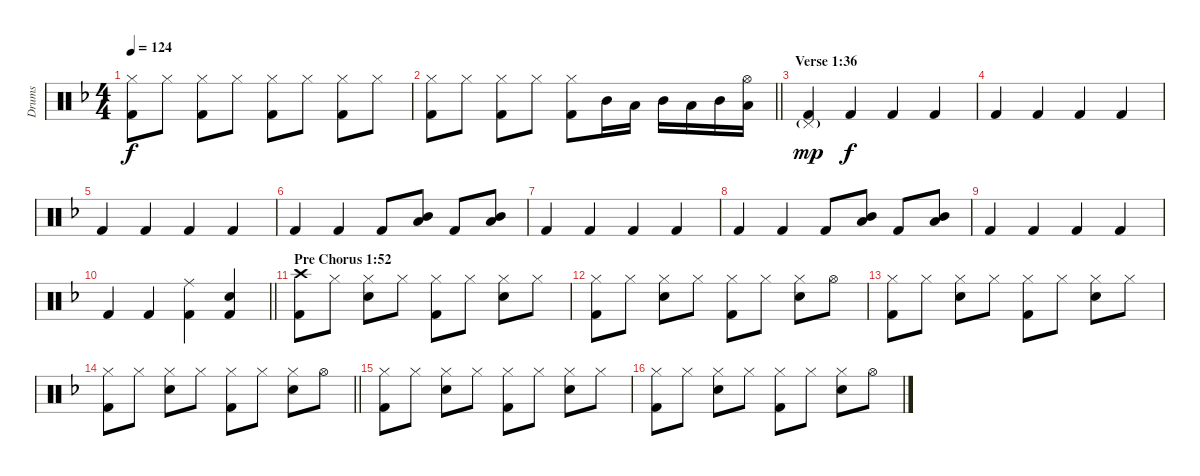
\track ("Drums" "Drums") {instrument percussion}
\staff {score}
\articulation defaults
\ts (4 4)
\tempo 124
\clef neutral
\ks f
("Hi-Hat (closed)" "Kick (hit) 2").8{dy f} "Hi-Hat (closed)".8 ("Hi-Hat (closed)" "Kick (hit) 2").8 "Hi-Hat (closed)".8 ("Hi-Hat (closed)" "Kick (hit) 2").8 "Hi-Hat (closed)".8 ("Hi-Hat (closed)" "Kick (hit) 2").8 "Hi-Hat (closed)".8 |
\barLineRight lightlight
("Hi-Hat (closed)" "Kick (hit) 2").8 "Hi-Hat (closed)".8 ("Hi-Hat (closed)" "Kick (hit) 2").8 "Hi-Hat (closed)".8 ("Hi-Hat (closed)" "Kick (hit) 2").8 "Mid Tom (hit)".16 "Low Tom (hit)".16 "Mid Tom (hit)".16 "Low Tom (hit)".16 "Mid Tom (hit)".16 ("Hi-Hat (open)" "Low Tom (hit)").16 |
\section ("" "Verse 1:36")
("Pedal Hi-Hat (hit)"{g} "Kick (hit) 2").4{dy mp} "Kick (hit) 2".4{dy f} "Kick (hit) 2".4 "Kick (hit) 2".4 |
"Kick (hit) 2".4 "Kick (hit) 2".4 "Kick (hit) 2".4 "Kick (hit) 2".4 |
"Kick (hit) 2".4 "Kick (hit) 2".4 "Kick (hit) 2".4 "Kick (hit) 2".4 |
"Kick (hit) 2".4 "Kick (hit) 2".4 "Kick (hit) 2".8 ("Low Tom (hit)" "Mid Tom (hit)").8 "Kick (hit) 2".8 ("Low Tom (hit)" "Mid Tom (hit)").8 |
"Kick (hit) 2".4 "Kick (hit) 2".4 "Kick (hit) 2".4 "Kick (hit) 2".4 |
"Kick (hit) 2".4 "Kick (hit) 2".4 "Kick (hit) 2".8 ("Low Tom (hit)" "Mid Tom (hit)").8 "Kick (hit) 2".8 ("Low Tom (hit)" "Mid Tom (hit)").8 |
"Kick (hit) 2".4 "Kick (hit) 2".4 "Kick (hit) 2".4 "Kick (hit) 2".4 |
\barLineRight lightlight "Kick (hit) 2".4 "Kick (hit) 2".4
("Ride (middle)" "Kick (hit) 2").4 ("Snare (hit) 2" "Kick (hit) 2").4 |
\section ("" "Pre Chorus 1:52")
("Crash high (hit)" "Kick (hit) 2").8 "Hi-Hat (closed)".8 ("Hi-Hat (closed)" "Snare (hit) 2").8 "Hi-Hat (closed)".8 ("Hi-Hat (closed)" "Kick (hit) 2").8 "Hi-Hat (closed)".8 ("Hi-Hat (closed)" "Snare (hit) 2").8 "Hi-Hat (closed)".8 |
("Hi-Hat (closed)" "Kick (hit) 2").8 "Hi-Hat (closed)".8 ("Hi-Hat (closed)" "Snare (hit) 2").8 "Hi-Hat (closed)".8 ("Hi-Hat (closed)" "Kick (hit) 2").8 "Hi-Hat (closed)".8 ("Hi-Hat (closed)" "Snare (hit) 2").8 "Hi-Hat (open)".8 |
("Hi-Hat (closed)" "Kick (hit) 2").8 "Hi-Hat (closed)".8 ("Hi-Hat (closed)" "Snare (hit) 2").8 "Hi-Hat (closed)".8 ("Hi-Hat (closed)" "Kick (hit) 2").8 "Hi-Hat (closed)".8 ("Hi-Hat (closed)" "Snare (hit) 2").8 "Hi-Hat (closed)".8 |
\barLineRight lightlight
("Hi-Hat (closed)" "Kick (hit) 2").8 "Hi-Hat (closed)".8 ("Hi-Hat (closed)" "Snare (hit) 2").8 "Hi-Hat (closed)".8 ("Hi-Hat (closed)" "Kick (hit) 2").8 "Hi-Hat (closed)".8 ("Hi-Hat (closed)" "Snare (hit) 2").8 "Hi-Hat (open)".8 |
("Hi-Hat (closed)" "Kick (hit) 2").8 "Hi-Hat (closed)".8 ("Hi-Hat (closed)" "Snare (hit) 2").8 "Hi-Hat (closed)".8 ("Hi-Hat (closed)" "Kick (hit) 2").8 "Hi-Hat (closed)".8 ("Hi-Hat (closed)" "Snare (hit) 2").8 "Hi-Hat (closed)".8 |
("Hi-Hat (closed)" "Kick (hit) 2").8 "Hi-Hat (closed)".8 ("Hi-Hat (closed)" "Snare (hit) 2").8 "Hi-Hat (closed)".8 ("Hi-Hat (closed)" "Kick (hit) 2").8 "Hi-Hat (closed)".8 ("Hi-Hat (closed)" "Snare (hit) 2").8 "Hi-Hat (open)".8
